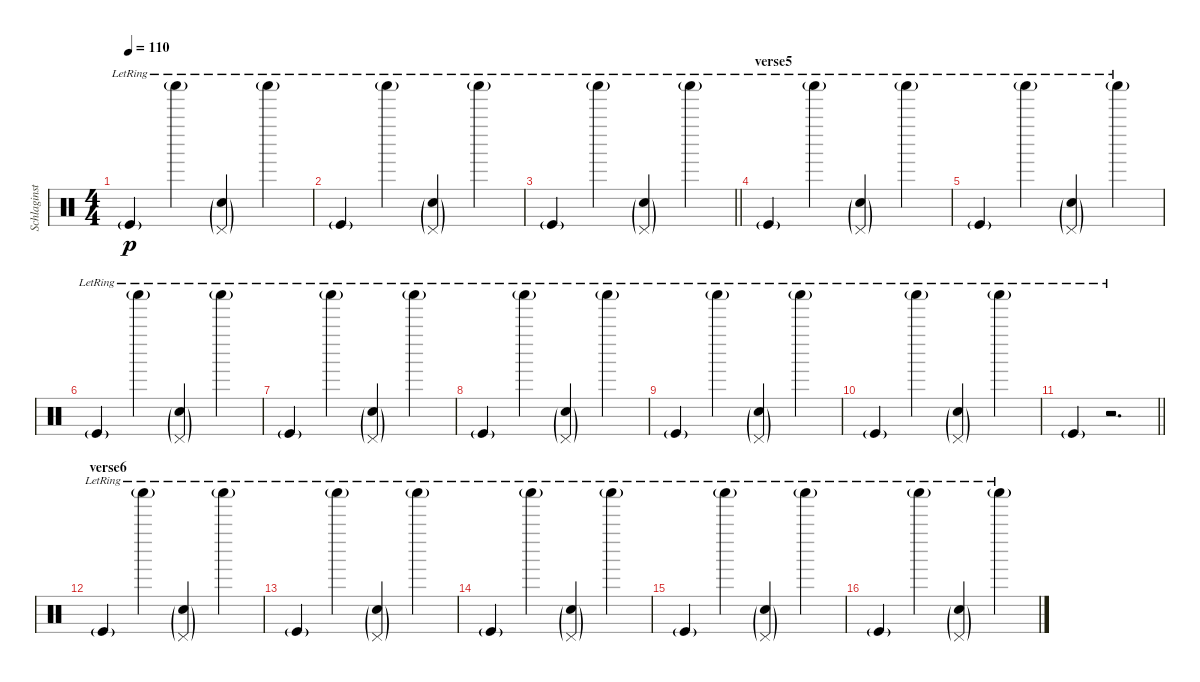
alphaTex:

\track ("Schlaginstrumente - Auswahl" "Schlaginst") {instrument percussion}
\staff {score}
\articulation defaults
\ts (4 4)
\tempo 110
\clef neutral
\ks c "Kick (hit)"{g lr}.4{dy p} "Shaker (hit)"{g lr}.4
("Snare (hit) 2"{g lr} "Pedal Hi-Hat (hit)"{g lr}).4 "Shaker (hit)"{g lr}.4 |
"Kick (hit)"{g lr}.4 "Shaker (hit)"{g lr}.4 ("Snare (hit) 2"{g lr} "Pedal Hi-Hat (hit)"{g lr}).4 "Shaker (hit)"{g lr}.4 |
\barLineRight lightlight "Kick (hit)"{g lr}.4 "Shaker (hit)"{g lr}.4
("Snare (hit) 2"{g lr} "Pedal Hi-Hat (hit)"{g lr}).4 "Shaker (hit)"{g lr}.4 |
\section ("" "verse5")
"Kick (hit)"{g lr}.4 "Shaker (hit)"{g lr}.4 ("Snare (hit) 2"{g lr} "Pedal Hi-Hat (hit)"{g lr}).4 "Shaker (hit)"{g lr}.4 |
"Kick (hit)"{g lr}.4 "Shaker (hit)"{g lr}.4 ("Snare (hit) 2"{g lr} "Pedal Hi-Hat (hit)"{g lr}).4 "Shaker (hit)"{g lr}.4 |
"Kick (hit)"{g lr}.4 "Shaker (hit)"{g lr}.4 ("Snare (hit) 2"{g lr} "Pedal Hi-Hat (hit)"{g lr}).4 "Shaker (hit)"{g lr}.4 |
"Kick (hit)"{g lr}.4 "Shaker (hit)"{g lr}.4 ("Snare (hit) 2"{g lr} "Pedal Hi-Hat (hit)"{g lr}).4 "Shaker (hit)"{g lr}.4 |
"Kick (hit)"{g lr}.4 "Shaker (hit)"{g lr}.4 ("Snare (hit) 2"{g lr} "Pedal Hi-Hat (hit)"{g lr}).4 "Shaker (hit)"{g lr}.4 |
"Kick (hit)"{g lr}.4 "Shaker (hit)"{g lr}.4 ("Snare (hit) 2"{g lr} "Pedal Hi-Hat (hit)"{g lr}).4 "Shaker (hit)"{g lr}.4 |
"Kick (hit)"{g lr}.4 "Shaker (hit)"{g lr}.4 ("Snare (hit) 2"{g lr} "Pedal Hi-Hat (hit)"{g lr}).4 "Shaker (hit)"{g lr}.4 |
\barLineRight lightlight "Kick (hit)"{g lr}.4
r.2{d} |
\section ("" "verse6")
"Kick (hit)"{g lr}.4 "Shaker (hit)"{g lr}.4 ("Snare (hit) 2"{g lr} "Pedal Hi-Hat (hit)"{g lr}).4 "Shaker (hit)"{g lr}.4 |
"Kick (hit)"{g lr}.4 "Shaker (hit)"{g lr}.4 ("Snare (hit) 2"{g lr} "Pedal Hi-Hat (hit)"{g lr}).4 "Shaker (hit)"{g lr}.4 |
"Kick (hit)"{g lr}.4 "Shaker (hit)"{g lr}.4 ("Snare (hit) 2"{g lr} "Pedal Hi-Hat (hit)"{g lr}).4 "Shaker (hit)"{g lr}.4 |
"Kick (hit)"{g lr}.4 "Shaker (hit)"{g lr}.4 ("Snare (hit) 2"{g lr} "Pedal Hi-Hat (hit)"{g lr}).4 "Shaker (hit)"{g lr}.4 |
"Kick (hit)"{g lr}.4 "Shaker (hit)"{g lr}.4 ("Snare (hit) 2"{g lr} "Pedal Hi-Hat (hit)"{g lr}).4 "Shaker (hit)"{g lr}.4
